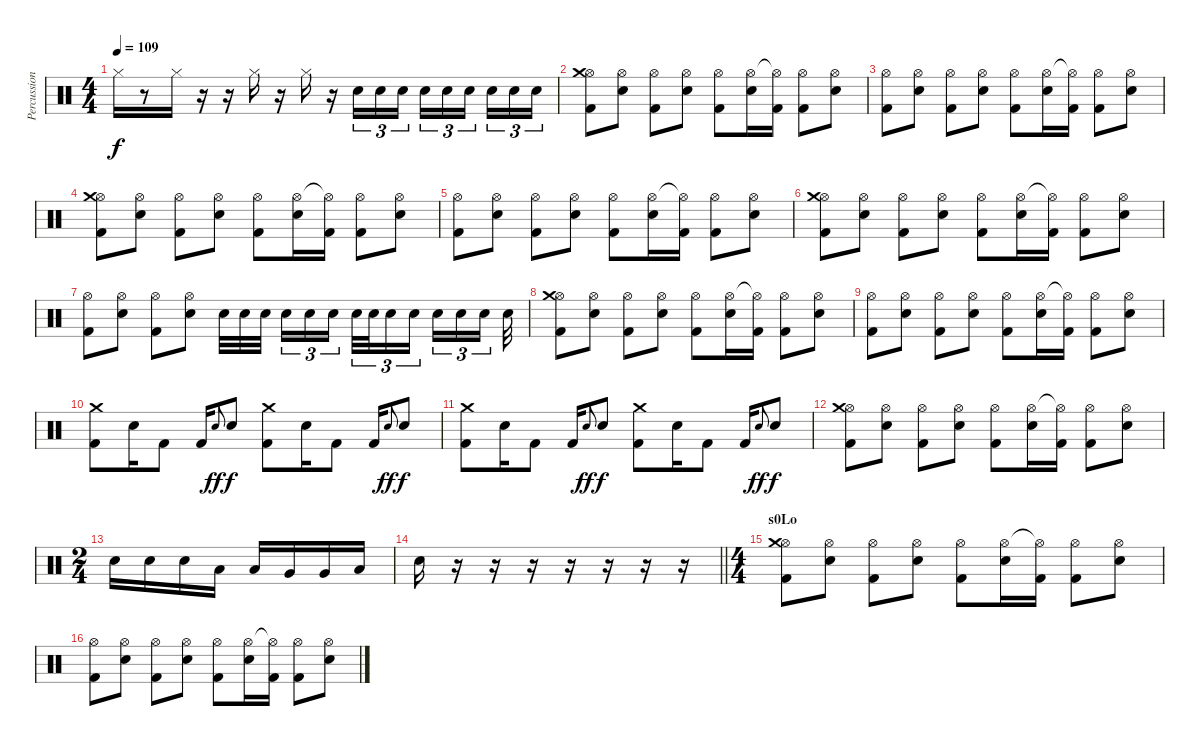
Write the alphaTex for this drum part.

\track ("Percussion" "Percussion") {instrument percussion}
\staff {score}
\articulation defaults
\ts (4 4)
\tempo 109
\clef neutral
\ks c "Hi-Hat (closed)".16{dy f}
r.8 "Hi-Hat (closed)".16 r.16 r.16 "Hi-Hat (closed)".16 r.16 "Hi-Hat (closed)".16 r.16 "Electric Snare (hit)".16{tu (3 2)} "Electric Snare (hit)".16{tu (3 2)} "Electric Snare (hit)".16{tu (3 2)} "Electric Snare (hit)".16{tu (3 2)} "Electric Snare (hit)".16{tu (3 2)} "Electric Snare (hit)".16{tu (3 2) beam splitsecondary} "Electric Snare (hit)".16{tu (3 2)} "Electric Snare (hit)".16{tu (3 2)} "Electric Snare (hit)".16{tu (3 2)} |
("Hi-Hat (open)" "Crash medium (hit)" "Kick (hit) 2").8 ("Hi-Hat (open)" "Electric Snare (hit)").8 ("Hi-Hat (open)" "Kick (hit) 2").8 ("Hi-Hat (open)" "Electric Snare (hit)").8 ("Hi-Hat (open)" "Kick (hit) 2").8 ("Hi-Hat (open)" "Electric Snare (hit)").16 ("Hi-Hat (open)"{t} "Kick (hit) 2").16 ("Hi-Hat (open)" "Kick (hit) 2").8 ("Hi-Hat (open)" "Electric Snare (hit)").8 |
("Hi-Hat (open)" "Kick (hit) 2").8 ("Hi-Hat (open)" "Electric Snare (hit)").8 ("Hi-Hat (open)" "Kick (hit) 2").8 ("Hi-Hat (open)" "Electric Snare (hit)").8 ("Hi-Hat (open)" "Kick (hit) 2").8 ("Hi-Hat (open)" "Electric Snare (hit)").16 ("Hi-Hat (open)"{t} "Kick (hit) 2").16 ("Hi-Hat (open)" "Kick (hit) 2").8 ("Hi-Hat (open)" "Electric Snare (hit)").8 |
("Hi-Hat (open)" "Crash medium (hit)" "Kick (hit) 2").8 ("Hi-Hat (open)" "Electric Snare (hit)").8 ("Hi-Hat (open)" "Kick (hit) 2").8 ("Hi-Hat (open)" "Electric Snare (hit)").8 ("Hi-Hat (open)" "Kick (hit) 2").8 ("Hi-Hat (open)" "Electric Snare (hit)").16 ("Hi-Hat (open)"{t} "Kick (hit) 2").16 ("Hi-Hat (open)" "Kick (hit) 2").8 ("Hi-Hat (open)" "Electric Snare (hit)").8 |
("Hi-Hat (open)" "Kick (hit) 2").8 ("Hi-Hat (open)" "Electric Snare (hit)").8 ("Hi-Hat (open)" "Kick (hit) 2").8 ("Hi-Hat (open)" "Electric Snare (hit)").8 ("Hi-Hat (open)" "Kick (hit) 2").8 ("Hi-Hat (open)" "Electric Snare (hit)").16 ("Hi-Hat (open)"{t} "Kick (hit) 2").16 ("Hi-Hat (open)" "Kick (hit) 2").8 ("Hi-Hat (open)" "Electric Snare (hit)").8 |
("Hi-Hat (open)" "Crash medium (hit)" "Kick (hit) 2").8 ("Hi-Hat (open)" "Electric Snare (hit)").8 ("Hi-Hat (open)" "Kick (hit) 2").8 ("Hi-Hat (open)" "Electric Snare (hit)").8 ("Hi-Hat (open)" "Kick (hit) 2").8 ("Hi-Hat (open)" "Electric Snare (hit)").16 ("Hi-Hat (open)"{t} "Kick (hit) 2").16 ("Hi-Hat (open)" "Kick (hit) 2").8 ("Hi-Hat (open)" "Electric Snare (hit)").8 |
("Hi-Hat (open)" "Kick (hit) 2").8 ("Hi-Hat (open)" "Electric Snare (hit)").8 ("Hi-Hat (open)" "Kick (hit) 2").8 ("Hi-Hat (open)" "Electric Snare (hit)").8 "Electric Snare (hit)".32 "Electric Snare (hit)".32 "Electric Snare (hit)".32{beam splitsecondary} "Electric Snare (hit)".16{tu (3 2)} "Electric Snare (hit)".16{tu (3 2)} "Electric Snare (hit)".16{tu (3 2) beam splitsecondary} "Electric Snare (hit)".32{tu (3 2)} "Electric Snare (hit)".32{tu (3 2)} "Electric Snare (hit)".16{tu (3 2)} "Electric Snare (hit)".16{tu (3 2) beam splitsecondary} "Electric Snare (hit)".16{tu (3 2)} "Electric Snare (hit)".16{tu (3 2)} "Electric Snare (hit)".16{tu (3 2) beam splitsecondary} "Electric Snare (hit)".32 |
("Hi-Hat (open)" "Crash medium (hit)" "Kick (hit) 2").8 ("Hi-Hat (open)" "Electric Snare (hit)").8 ("Hi-Hat (open)" "Kick (hit) 2").8 ("Hi-Hat (open)" "Electric Snare (hit)").8 ("Hi-Hat (open)" "Kick (hit) 2").8 ("Hi-Hat (open)" "Electric Snare (hit)").16 ("Hi-Hat (open)"{t} "Kick (hit) 2").16 ("Hi-Hat (open)" "Kick (hit) 2").8 ("Hi-Hat (open)" "Electric Snare (hit)").8 |
("Hi-Hat (open)" "Kick (hit) 2").8 ("Hi-Hat (open)" "Electric Snare (hit)").8 ("Hi-Hat (open)" "Kick (hit) 2").8 ("Hi-Hat (open)" "Electric Snare (hit)").8 ("Hi-Hat (open)" "Kick (hit) 2").8 ("Hi-Hat (open)" "Electric Snare (hit)").16 ("Hi-Hat (open)"{t} "Kick (hit) 2").16 ("Hi-Hat (open)" "Kick (hit) 2").8 ("Hi-Hat (open)" "Electric Snare (hit)").8 |
("Crash medium (hit)" "Kick (hit) 2").8 "Electric Snare (hit)".16 "Kick (hit) 2".8 "Kick (hit) 2".16 "Electric Snare (hit)".8{gr onbeat dy ff} "Electric Snare (hit)".8{dy f} ("Crash medium (hit)" "Kick (hit) 2").8 "Electric Snare (hit)".16 "Kick (hit) 2".8 "Kick (hit) 2".16 "Electric Snare (hit)".8{gr onbeat dy ff} "Electric Snare (hit)".8{dy f} |
("Crash medium (hit)" "Kick (hit) 2").8 "Electric Snare (hit)".16 "Kick (hit) 2".8 "Kick (hit) 2".16 "Electric Snare (hit)".8{gr onbeat dy ff} "Electric Snare (hit)".8{dy f} ("Crash medium (hit)" "Kick (hit) 2").8 "Electric Snare (hit)".16 "Kick (hit) 2".8 "Kick (hit) 2".16 "Electric Snare (hit)".8{gr onbeat dy ff} "Electric Snare (hit)".8{dy f} |
("Hi-Hat (open)" "Crash medium (hit)" "Kick (hit) 2").8 ("Hi-Hat (open)" "Electric Snare (hit)").8 ("Hi-Hat (open)" "Kick (hit) 2").8 ("Hi-Hat (open)" "Electric Snare (hit)").8 ("Hi-Hat (open)" "Kick (hit) 2").8 ("Hi-Hat (open)" "Electric Snare (hit)").16 ("Hi-Hat (open)"{t} "Kick (hit) 2").16 ("Hi-Hat (open)" "Kick (hit) 2").8 ("Hi-Hat (open)" "Electric Snare (hit)").8 |
\ts (2 4)
"Electric Snare (hit)".16 "Electric Snare (hit)".16 "Electric Snare (hit)".16 "Low Floor Tom (hit)".16 "Low Floor Tom (hit)".16 "Very Low Tom (hit)".16 "Very Low Tom (hit)".16 "Low Floor Tom (hit)".16 |
\barLineRight lightlight "Electric Snare (hit)".16
r.16 r.16 r.16 r.16 r.16 r.16 r.16 |
\ts (4 4)
\section ("" "s0Lo")
("Hi-Hat (open)" "Crash medium (hit)" "Kick (hit) 2").8 ("Hi-Hat (open)" "Electric Snare (hit)").8 ("Hi-Hat (open)" "Kick (hit) 2").8 ("Hi-Hat (open)" "Electric Snare (hit)").8 ("Hi-Hat (open)" "Kick (hit) 2").8 ("Hi-Hat (open)" "Electric Snare (hit)").16 ("Hi-Hat (open)"{t} "Kick (hit) 2").16 ("Hi-Hat (open)" "Kick (hit) 2").8 ("Hi-Hat (open)" "Electric Snare (hit)").8 |
("Hi-Hat (open)" "Kick (hit) 2").8 ("Hi-Hat (open)" "Electric Snare (hit)").8 ("Hi-Hat (open)" "Kick (hit) 2").8 ("Hi-Hat (open)" "Electric Snare (hit)").8 ("Hi-Hat (open)" "Kick (hit) 2").8 ("Hi-Hat (open)" "Electric Snare (hit)").16 ("Hi-Hat (open)"{t} "Kick (hit) 2").16 ("Hi-Hat (open)" "Kick (hit) 2").8 ("Hi-Hat (open)" "Electric Snare (hit)").8
